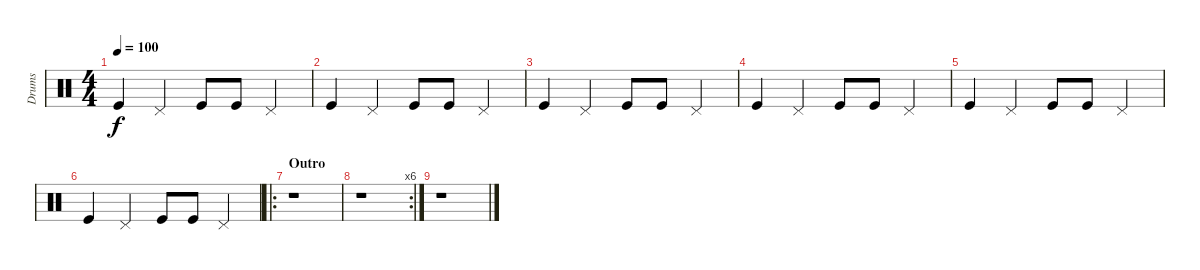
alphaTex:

\track ("Drums" "Drums") {instrument percussion}
\staff {score}
\articulation defaults
\ts (4 4)
\tempo 100
\clef neutral
\ks c "Kick (hit)".4{dy f} "Pedal Hi-Hat (hit)".4 "Kick (hit)".8 "Kick (hit)".8 "Pedal Hi-Hat (hit)".4
|
"Kick (hit)".4 "Pedal Hi-Hat (hit)".4 "Kick (hit)".8 "Kick (hit)".8 "Pedal Hi-Hat (hit)".4 |
"Kick (hit)".4 "Pedal Hi-Hat (hit)".4 "Kick (hit)".8 "Kick (hit)".8 "Pedal Hi-Hat (hit)".4 |
"Kick (hit)".4 "Pedal Hi-Hat (hit)".4 "Kick (hit)".8 "Kick (hit)".8 "Pedal Hi-Hat (hit)".4 |
"Kick (hit)".4 "Pedal Hi-Hat (hit)".4 "Kick (hit)".8 "Kick (hit)".8 "Pedal Hi-Hat (hit)".4 |
"Kick (hit)".4 "Pedal Hi-Hat (hit)".4 "Kick (hit)".8 "Kick (hit)".8 "Pedal Hi-Hat (hit)".4 |
\ro
\section ("" "Outro")
r.1 |
\rc 6
r.1 |
r.1
